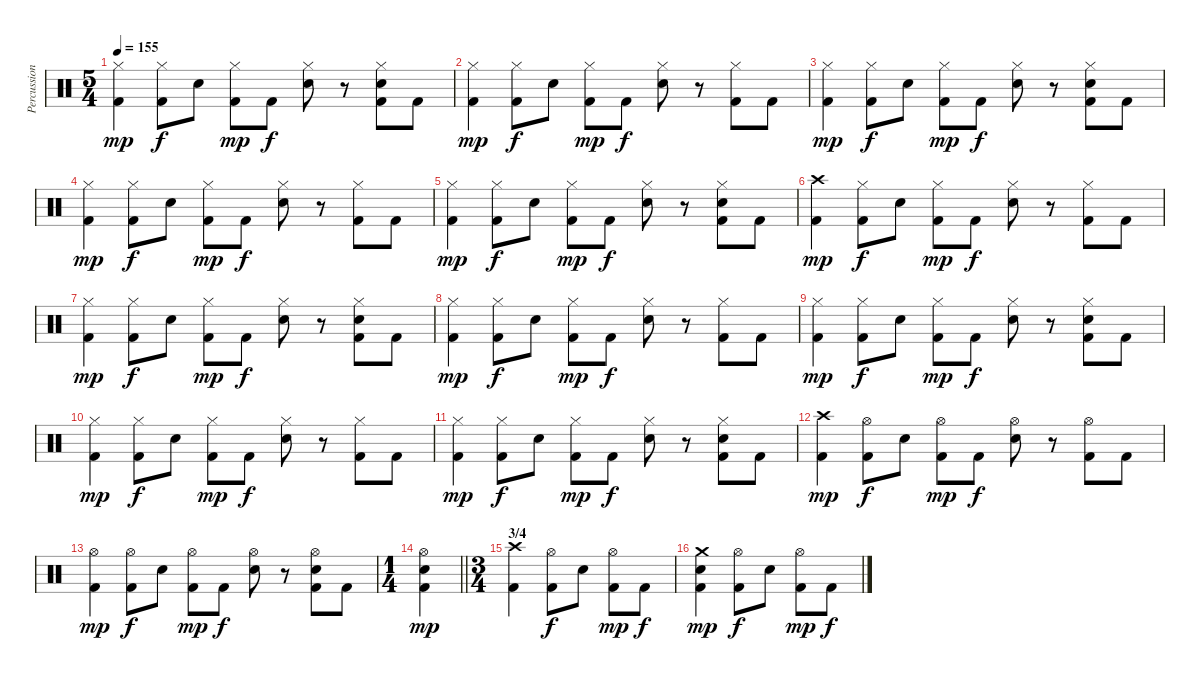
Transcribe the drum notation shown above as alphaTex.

\track ("Percussion" "Percussion") {instrument percussion}
\staff {score}
\articulation defaults
\ts (5 4)
\tempo 155
\clef neutral
\ks c
("Hi-Hat (closed)" "Kick (hit) 2").4{dy mp} ("Hi-Hat (closed)" "Kick (hit) 2").8{dy f} "Snare (hit) 2".8 ("Hi-Hat (closed)" "Kick (hit) 2").8{dy mp} "Kick (hit) 2".8{dy f} ("Hi-Hat (closed)" "Snare (hit) 2").8 r.8 ("Hi-Hat (closed)" "Snare (hit) 2" "Kick (hit) 2").8 "Kick (hit) 2".8 |
("Hi-Hat (closed)" "Kick (hit) 2").4{dy mp} ("Hi-Hat (closed)" "Kick (hit) 2").8{dy f} "Snare (hit) 2".8 ("Hi-Hat (closed)" "Kick (hit) 2").8{dy mp} "Kick (hit) 2".8{dy f} ("Hi-Hat (closed)" "Snare (hit) 2").8 r.8 ("Hi-Hat (closed)" "Kick (hit) 2").8 "Kick (hit) 2".8 |
("Hi-Hat (closed)" "Kick (hit) 2").4{dy mp} ("Hi-Hat (closed)" "Kick (hit) 2").8{dy f} "Snare (hit) 2".8 ("Hi-Hat (closed)" "Kick (hit) 2").8{dy mp} "Kick (hit) 2".8{dy f} ("Hi-Hat (closed)" "Snare (hit) 2").8 r.8 ("Hi-Hat (closed)" "Snare (hit) 2" "Kick (hit) 2").8 "Kick (hit) 2".8 |
("Hi-Hat (closed)" "Kick (hit) 2").4{dy mp} ("Hi-Hat (closed)" "Kick (hit) 2").8{dy f} "Snare (hit) 2".8 ("Hi-Hat (closed)" "Kick (hit) 2").8{dy mp} "Kick (hit) 2".8{dy f} ("Hi-Hat (closed)" "Snare (hit) 2").8 r.8 ("Hi-Hat (closed)" "Kick (hit) 2").8 "Kick (hit) 2".8 |
("Hi-Hat (closed)" "Kick (hit) 2").4{dy mp} ("Hi-Hat (closed)" "Kick (hit) 2").8{dy f} "Snare (hit) 2".8 ("Hi-Hat (closed)" "Kick (hit) 2").8{dy mp} "Kick (hit) 2".8{dy f} ("Hi-Hat (closed)" "Snare (hit) 2").8 r.8 ("Hi-Hat (closed)" "Snare (hit) 2" "Kick (hit) 2").8 "Kick (hit) 2".8 |
("Crash high (hit)" "Kick (hit) 2").4{dy mp} ("Hi-Hat (closed)" "Kick (hit) 2").8{dy f} "Snare (hit) 2".8 ("Hi-Hat (closed)" "Kick (hit) 2").8{dy mp} "Kick (hit) 2".8{dy f} ("Hi-Hat (closed)" "Snare (hit) 2").8 r.8 ("Hi-Hat (closed)" "Kick (hit) 2").8 "Kick (hit) 2".8 |
("Hi-Hat (closed)" "Kick (hit) 2").4{dy mp} ("Hi-Hat (closed)" "Kick (hit) 2").8{dy f} "Snare (hit) 2".8 ("Hi-Hat (closed)" "Kick (hit) 2").8{dy mp} "Kick (hit) 2".8{dy f} ("Hi-Hat (closed)" "Snare (hit) 2").8 r.8 ("Hi-Hat (closed)" "Snare (hit) 2" "Kick (hit) 2").8 "Kick (hit) 2".8 |
("Hi-Hat (closed)" "Kick (hit) 2").4{dy mp} ("Hi-Hat (closed)" "Kick (hit) 2").8{dy f} "Snare (hit) 2".8 ("Hi-Hat (closed)" "Kick (hit) 2").8{dy mp} "Kick (hit) 2".8{dy f} ("Hi-Hat (closed)" "Snare (hit) 2").8 r.8 ("Hi-Hat (closed)" "Kick (hit) 2").8 "Kick (hit) 2".8 |
("Hi-Hat (closed)" "Kick (hit) 2").4{dy mp} ("Hi-Hat (closed)" "Kick (hit) 2").8{dy f} "Snare (hit) 2".8 ("Hi-Hat (closed)" "Kick (hit) 2").8{dy mp} "Kick (hit) 2".8{dy f} ("Hi-Hat (closed)" "Snare (hit) 2").8 r.8 ("Hi-Hat (closed)" "Snare (hit) 2" "Kick (hit) 2").8 "Kick (hit) 2".8 |
("Hi-Hat (closed)" "Kick (hit) 2").4{dy mp} ("Hi-Hat (closed)" "Kick (hit) 2").8{dy f} "Snare (hit) 2".8 ("Hi-Hat (closed)" "Kick (hit) 2").8{dy mp} "Kick (hit) 2".8{dy f} ("Hi-Hat (closed)" "Snare (hit) 2").8 r.8 ("Hi-Hat (closed)" "Kick (hit) 2").8 "Kick (hit) 2".8 |
("Hi-Hat (closed)" "Kick (hit) 2").4{dy mp} ("Hi-Hat (closed)" "Kick (hit) 2").8{dy f} "Snare (hit) 2".8 ("Hi-Hat (closed)" "Kick (hit) 2").8{dy mp} "Kick (hit) 2".8{dy f} ("Hi-Hat (closed)" "Snare (hit) 2").8 r.8 ("Hi-Hat (closed)" "Snare (hit) 2" "Kick (hit) 2").8 "Kick (hit) 2".8 |
("Crash high (hit)" "Kick (hit) 2").4{dy mp} ("Hi-Hat (open)" "Kick (hit) 2").8{dy f} "Snare (hit) 2".8 ("Hi-Hat (open)" "Kick (hit) 2").8{dy mp} "Kick (hit) 2".8{dy f} ("Hi-Hat (open)" "Snare (hit) 2").8 r.8 ("Hi-Hat (open)" "Kick (hit) 2").8 "Kick (hit) 2".8 |
("Hi-Hat (open)" "Kick (hit) 2").4{dy mp} ("Hi-Hat (open)" "Kick (hit) 2").8{dy f} "Snare (hit) 2".8 ("Hi-Hat (open)" "Kick (hit) 2").8{dy mp} "Kick (hit) 2".8{dy f} ("Hi-Hat (open)" "Snare (hit) 2").8 r.8 ("Hi-Hat (open)" "Snare (hit) 2" "Kick (hit) 2").8 "Kick (hit) 2".8 |
\ts (1 4)
\barLineRight lightlight
("Hi-Hat (open)" "Snare (hit) 2" "Kick (hit) 2").4{dy mp} |
\ts (3 4)
\section ("" "3/4")
("Crash high (hit)" "Kick (hit) 2").4 ("Hi-Hat (open)" "Kick (hit) 2").8{dy f} "Snare (hit) 2".8 ("Hi-Hat (open)" "Kick (hit) 2").8{dy mp} "Kick (hit) 2".8{dy f} |
("Crash medium (hit)" "Snare (hit) 2" "Kick (hit) 2").4{dy mp} ("Hi-Hat (open)" "Kick (hit) 2").8{dy f} "Snare (hit) 2".8 ("Hi-Hat (open)" "Kick (hit) 2").8{dy mp} "Kick (hit) 2".8{dy f}
